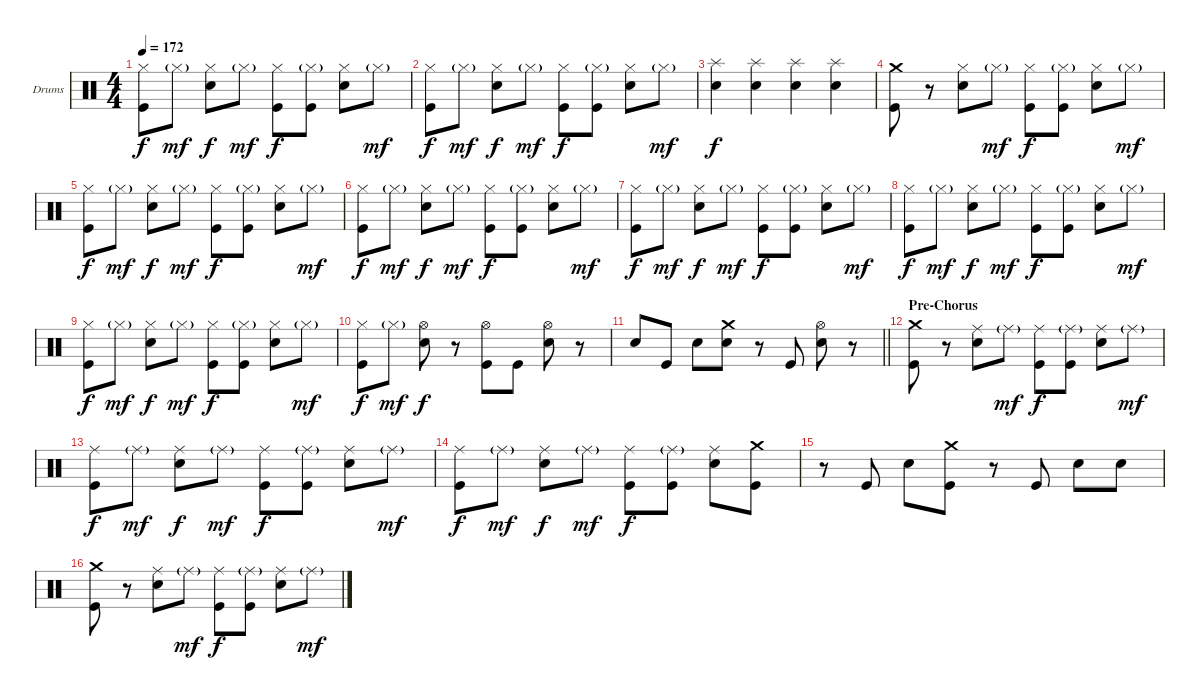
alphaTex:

\bracketExtendMode groupsimilarinstruments
\firstSystemTrackNameOrientation horizontal
\otherSystemsTrackNameOrientation horizontal
\track ("Drumkit" "Drums") {instrument percussion}
\staff {score}
\articulation defaults
\ts (4 4)
\tempo 172
\clef neutral
\ks c
("Hi-Hat (closed)" "Kick (hit)").8{dy f} "Hi-Hat (closed)"{g}.8{dy mf} ("Hi-Hat (closed)" "Snare (hit) 2").8{dy f} "Hi-Hat (closed)"{g}.8{dy mf} ("Hi-Hat (closed)" "Kick (hit)").8{dy f} ("Hi-Hat (closed)"{g} "Kick (hit)").8 ("Hi-Hat (closed)" "Snare (hit) 2").8 "Hi-Hat (closed)"{g}.8{dy mf} |
("Hi-Hat (closed)" "Kick (hit)").8{dy f} "Hi-Hat (closed)"{g}.8{dy mf} ("Hi-Hat (closed)" "Snare (hit) 2").8{dy f} "Hi-Hat (closed)"{g}.8{dy mf} ("Hi-Hat (closed)" "Kick (hit)").8{dy f} ("Hi-Hat (closed)"{g} "Kick (hit)").8 ("Hi-Hat (closed)" "Snare (hit) 2").8 "Hi-Hat (closed)"{g}.8{dy mf} |
("Splash (hit)" "Snare (hit) 2").4{dy f} ("Splash (hit)" "Snare (hit) 2").4 ("Splash (hit)" "Snare (hit) 2").4 ("Splash (hit)" "Snare (hit) 2").4 |
("Crash medium (hit)" "Kick (hit)").8 r.8 ("Hi-Hat (closed)" "Snare (hit) 2").8 "Hi-Hat (closed)"{g}.8{dy mf} ("Hi-Hat (closed)" "Kick (hit)").8{dy f} ("Hi-Hat (closed)"{g} "Kick (hit)").8 ("Hi-Hat (closed)" "Snare (hit) 2").8 "Hi-Hat (closed)"{g}.8{dy mf} |
("Hi-Hat (closed)" "Kick (hit)").8{dy f} "Hi-Hat (closed)"{g}.8{dy mf} ("Hi-Hat (closed)" "Snare (hit) 2").8{dy f} "Hi-Hat (closed)"{g}.8{dy mf} ("Hi-Hat (closed)" "Kick (hit)").8{dy f} ("Hi-Hat (closed)"{g} "Kick (hit)").8 ("Hi-Hat (closed)" "Snare (hit) 2").8 "Hi-Hat (closed)"{g}.8{dy mf} |
("Hi-Hat (closed)" "Kick (hit)").8{dy f} "Hi-Hat (closed)"{g}.8{dy mf} ("Hi-Hat (closed)" "Snare (hit) 2").8{dy f} "Hi-Hat (closed)"{g}.8{dy mf} ("Hi-Hat (closed)" "Kick (hit)").8{dy f} ("Hi-Hat (closed)"{g} "Kick (hit)").8 ("Hi-Hat (closed)" "Snare (hit) 2").8 "Hi-Hat (closed)"{g}.8{dy mf} |
("Hi-Hat (closed)" "Kick (hit)").8{dy f} "Hi-Hat (closed)"{g}.8{dy mf} ("Hi-Hat (closed)" "Snare (hit) 2").8{dy f} "Hi-Hat (closed)"{g}.8{dy mf} ("Hi-Hat (closed)" "Kick (hit)").8{dy f} ("Hi-Hat (closed)"{g} "Kick (hit)").8 ("Hi-Hat (closed)" "Snare (hit) 2").8 "Hi-Hat (closed)"{g}.8{dy mf} |
("Hi-Hat (closed)" "Kick (hit)").8{dy f} "Hi-Hat (closed)"{g}.8{dy mf} ("Hi-Hat (closed)" "Snare (hit) 2").8{dy f} "Hi-Hat (closed)"{g}.8{dy mf} ("Hi-Hat (closed)" "Kick (hit)").8{dy f} ("Hi-Hat (closed)"{g} "Kick (hit)").8 ("Hi-Hat (closed)" "Snare (hit) 2").8 "Hi-Hat (closed)"{g}.8{dy mf} |
("Hi-Hat (closed)" "Kick (hit)").8{dy f} "Hi-Hat (closed)"{g}.8{dy mf} ("Hi-Hat (closed)" "Snare (hit) 2").8{dy f} "Hi-Hat (closed)"{g}.8{dy mf} ("Hi-Hat (closed)" "Kick (hit)").8{dy f} ("Hi-Hat (closed)"{g} "Kick (hit)").8 ("Hi-Hat (closed)" "Snare (hit) 2").8 "Hi-Hat (closed)"{g}.8{dy mf} |
("Hi-Hat (closed)" "Kick (hit)").8{dy f} "Hi-Hat (closed)"{g}.8{dy mf} ("Hi-Hat (open)" "Snare (hit) 2").8{dy f} r.8 ("Hi-Hat (open)" "Kick (hit)").8 "Kick (hit)".8 ("Hi-Hat (open)" "Snare (hit) 2").8 r.8 |
\barLineRight lightlight "Snare (hit) 2".8 "Kick (hit)".8 "Snare (hit) 2".8
("Crash medium (hit)" "Snare (hit) 2").8 r.8 "Kick (hit)".8 ("Hi-Hat (open)" "Snare (hit) 2").8 r.8 |
\section ("" "Pre-Chorus")
("Crash medium (hit)" "Kick (hit)").8 r.8 ("Ride (middle)" "Snare (hit) 2").8 "Ride (middle)"{g}.8{dy mf} ("Ride (middle)" "Kick (hit)").8{dy f} ("Ride (middle)"{g} "Kick (hit)").8 ("Ride (middle)" "Snare (hit) 2").8 "Ride (middle)"{g}.8{dy mf} |
("Ride (middle)" "Kick (hit)").8{dy f} "Ride (middle)"{g}.8{dy mf} ("Ride (middle)" "Snare (hit) 2").8{dy f} "Ride (middle)"{g}.8{dy mf} ("Ride (middle)" "Kick (hit)").8{dy f} ("Ride (middle)"{g} "Kick (hit)").8 ("Ride (middle)" "Snare (hit) 2").8 "Ride (middle)"{g}.8{dy mf} |
("Ride (middle)" "Kick (hit)").8{dy f} "Ride (middle)"{g}.8{dy mf} ("Ride (middle)" "Snare (hit) 2").8{dy f} "Ride (middle)"{g}.8{dy mf} ("Ride (middle)" "Kick (hit)").8{dy f} ("Ride (middle)"{g} "Kick (hit)").8 ("Ride (middle)" "Snare (hit) 2").8 ("Crash medium (hit)" "Kick (hit)").8 |
r.8 "Kick (hit)".8 "Snare (hit) 2".8 ("Crash medium (hit)" "Kick (hit)").8 r.8 "Kick (hit)".8 "Snare (hit) 2".8 "Snare (hit) 2".8 |
("Crash medium (hit)" "Kick (hit)").8 r.8 ("Ride (middle)" "Snare (hit) 2").8 "Ride (middle)"{g}.8{dy mf} ("Ride (middle)" "Kick (hit)").8{dy f} ("Ride (middle)"{g} "Kick (hit)").8 ("Ride (middle)" "Snare (hit) 2").8 "Ride (middle)"{g}.8{dy mf}
